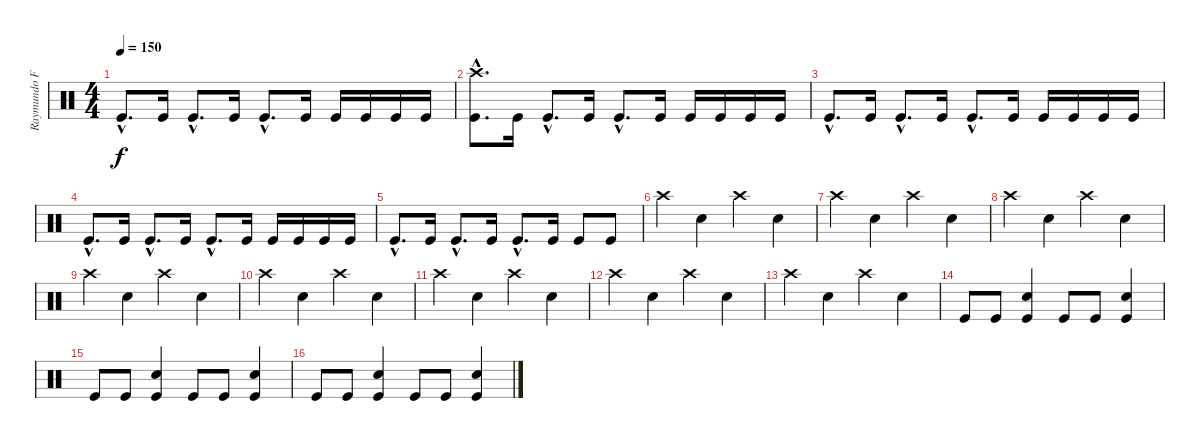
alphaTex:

\track ("Raymundo Fajardo" "Raymundo F") {instrument percussion}
\staff {score}
\articulation defaults
\ts (4 4)
\tempo 150
\clef neutral
\ks c "Kick (hit)"{hac}.8{d dy f} "Kick (hit)".16 "Kick (hit)"{hac}.8{d} "Kick (hit)".16 "Kick (hit)"{hac}.8{d} "Kick (hit)".16 "Kick (hit)".16 "Kick (hit)".16 "Kick (hit)".16 "Kick (hit)".16
|
("Crash high (hit)"{hac} "Kick (hit)"{hac}).8{d} "Kick (hit)".16 "Kick (hit)"{hac}.8{d} "Kick (hit)".16 "Kick (hit)"{hac}.8{d} "Kick (hit)".16 "Kick (hit)".16 "Kick (hit)".16 "Kick (hit)".16 "Kick (hit)".16 |
"Kick (hit)"{hac}.8{d} "Kick (hit)".16 "Kick (hit)"{hac}.8{d} "Kick (hit)".16 "Kick (hit)"{hac}.8{d} "Kick (hit)".16 "Kick (hit)".16 "Kick (hit)".16 "Kick (hit)".16 "Kick (hit)".16 |
"Kick (hit)"{hac}.8{d} "Kick (hit)".16 "Kick (hit)"{hac}.8{d} "Kick (hit)".16 "Kick (hit)"{hac}.8{d} "Kick (hit)".16 "Kick (hit)".16 "Kick (hit)".16 "Kick (hit)".16 "Kick (hit)".16 |
"Kick (hit)"{hac}.8{d} "Kick (hit)".16 "Kick (hit)"{hac}.8{d} "Kick (hit)".16 "Kick (hit)"{hac}.8{d} "Kick (hit)".16 "Kick (hit)".8 "Kick (hit)".8 |
"Crash high (hit)".4 "Electric Snare (hit)".4 "Crash high (hit)".4 "Electric Snare (hit)".4 |
"Crash high (hit)".4 "Electric Snare (hit)".4 "Crash high (hit)".4 "Electric Snare (hit)".4 |
"Crash high (hit)".4 "Electric Snare (hit)".4 "Crash high (hit)".4 "Electric Snare (hit)".4 |
"Crash high (hit)".4 "Electric Snare (hit)".4 "Crash high (hit)".4 "Electric Snare (hit)".4 |
"Crash high (hit)".4 "Electric Snare (hit)".4 "Crash high (hit)".4 "Electric Snare (hit)".4 |
"Crash high (hit)".4 "Electric Snare (hit)".4 "Crash high (hit)".4 "Electric Snare (hit)".4 |
"Crash high (hit)".4 "Electric Snare (hit)".4 "Crash high (hit)".4 "Electric Snare (hit)".4 |
"Crash high (hit)".4 "Electric Snare (hit)".4 "Crash high (hit)".4 "Electric Snare (hit)".4 |
"Kick (hit)".8 "Kick (hit)".8 ("Kick (hit)" "Electric Snare (hit)").4 "Kick (hit)".8 "Kick (hit)".8 ("Kick (hit)" "Electric Snare (hit)").4 |
"Kick (hit)".8 "Kick (hit)".8 ("Kick (hit)" "Electric Snare (hit)").4 "Kick (hit)".8 "Kick (hit)".8 ("Kick (hit)" "Electric Snare (hit)").4 |
"Kick (hit)".8 "Kick (hit)".8 ("Kick (hit)" "Electric Snare (hit)").4 "Kick (hit)".8 "Kick (hit)".8 ("Kick (hit)" "Electric Snare (hit)").4
